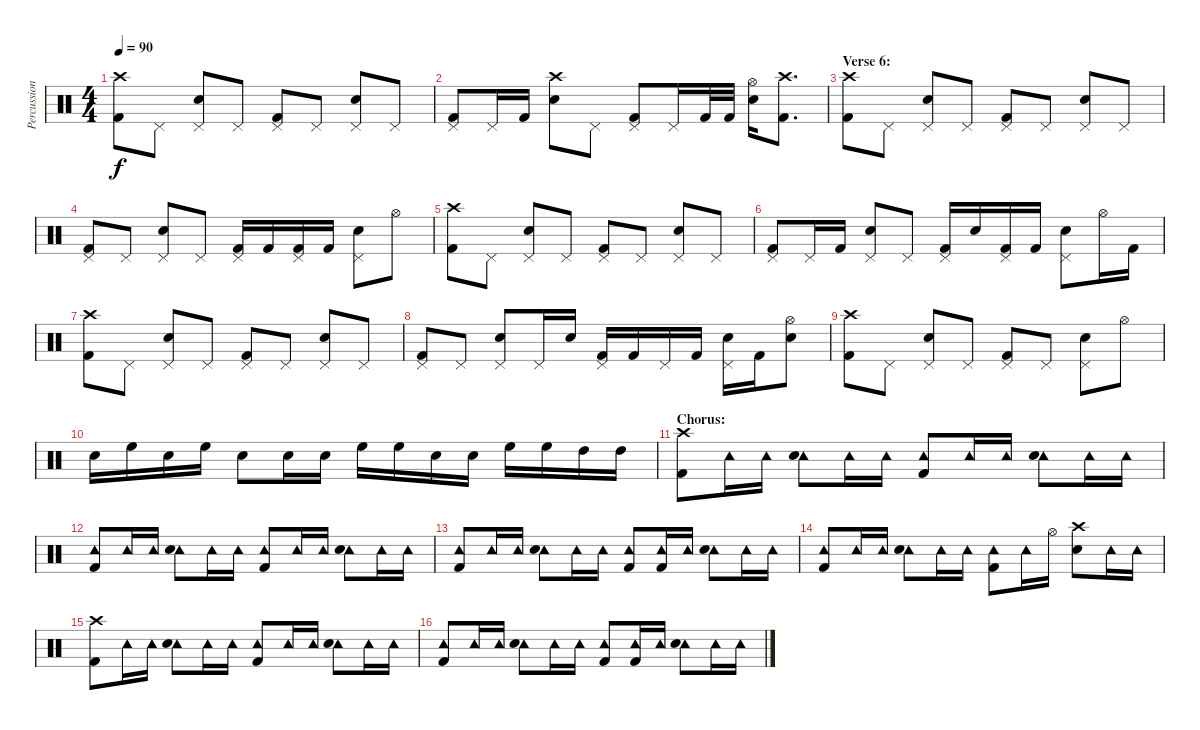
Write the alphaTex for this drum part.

\track ("Percussion" "Percussion") {instrument percussion}
\staff {score}
\articulation defaults
\ts (4 4)
\tempo 90
\clef neutral
\ks c
("Crash high (hit)" "Kick (hit) 2").8{dy f} "Pedal Hi-Hat (hit)".8 ("Pedal Hi-Hat (hit)" "Electric Snare (hit)").8 "Pedal Hi-Hat (hit)".8 ("Pedal Hi-Hat (hit)" "Kick (hit) 2").8 "Pedal Hi-Hat (hit)".8 ("Pedal Hi-Hat (hit)" "Electric Snare (hit)").8 "Pedal Hi-Hat (hit)".8 |
("Pedal Hi-Hat (hit)" "Kick (hit) 2").8 "Pedal Hi-Hat (hit)".16 "Kick (hit) 2".16 ("Crash high (hit)" "Electric Snare (hit)").8 "Pedal Hi-Hat (hit)".8 ("Pedal Hi-Hat (hit)" "Kick (hit) 2").8 "Pedal Hi-Hat (hit)".16 "Kick (hit) 2".32 "Kick (hit) 2".32 ("Hi-Hat (open)" "Electric Snare (hit)").16 ("Crash high (hit)" "Kick (hit) 2").8{d} |
\section ("" "Verse 6:")
("Crash high (hit)" "Kick (hit) 2").8 "Pedal Hi-Hat (hit)".8 ("Pedal Hi-Hat (hit)" "Electric Snare (hit)").8 "Pedal Hi-Hat (hit)".8 ("Pedal Hi-Hat (hit)" "Kick (hit) 2").8 "Pedal Hi-Hat (hit)".8 ("Pedal Hi-Hat (hit)" "Electric Snare (hit)").8 "Pedal Hi-Hat (hit)".8 |
("Pedal Hi-Hat (hit)" "Kick (hit) 2").8 "Pedal Hi-Hat (hit)".8 ("Pedal Hi-Hat (hit)" "Electric Snare (hit)").8 "Pedal Hi-Hat (hit)".8 ("Pedal Hi-Hat (hit)" "Kick (hit) 2").16 "Kick (hit) 2".16 ("Pedal Hi-Hat (hit)" "Kick (hit) 2").16 "Kick (hit) 2".16 ("Pedal Hi-Hat (hit)" "Electric Snare (hit)").8 "Hi-Hat (open)".8 |
("Crash high (hit)" "Kick (hit) 2").8 "Pedal Hi-Hat (hit)".8 ("Pedal Hi-Hat (hit)" "Electric Snare (hit)").8 "Pedal Hi-Hat (hit)".8 ("Pedal Hi-Hat (hit)" "Kick (hit) 2").8 "Pedal Hi-Hat (hit)".8 ("Pedal Hi-Hat (hit)" "Electric Snare (hit)").8 "Pedal Hi-Hat (hit)".8 |
("Pedal Hi-Hat (hit)" "Kick (hit) 2").8 "Pedal Hi-Hat (hit)".16 "Kick (hit) 2".16 ("Pedal Hi-Hat (hit)" "Electric Snare (hit)").8 "Pedal Hi-Hat (hit)".8 ("Pedal Hi-Hat (hit)" "Kick (hit) 2").16 "Electric Snare (hit)".16 ("Pedal Hi-Hat (hit)" "Kick (hit) 2").16 "Kick (hit) 2".16 ("Pedal Hi-Hat (hit)" "Electric Snare (hit)").8 "Hi-Hat (open)".16 "Kick (hit) 2".16 |
("Crash high (hit)" "Kick (hit) 2").8 "Pedal Hi-Hat (hit)".8 ("Pedal Hi-Hat (hit)" "Electric Snare (hit)").8 "Pedal Hi-Hat (hit)".8 ("Pedal Hi-Hat (hit)" "Kick (hit) 2").8 "Pedal Hi-Hat (hit)".8 ("Pedal Hi-Hat (hit)" "Electric Snare (hit)").8 "Pedal Hi-Hat (hit)".8 |
("Pedal Hi-Hat (hit)" "Kick (hit) 2").8 "Pedal Hi-Hat (hit)".8 ("Pedal Hi-Hat (hit)" "Electric Snare (hit)").8 "Pedal Hi-Hat (hit)".16 "Electric Snare (hit)".16 ("Pedal Hi-Hat (hit)" "Kick (hit) 2").16 "Kick (hit) 2".16 "Pedal Hi-Hat (hit)".16 "Kick (hit) 2".16 ("Pedal Hi-Hat (hit)" "Electric Snare (hit)").16 "Kick (hit) 2".16 ("Hi-Hat (open)" "Electric Snare (hit)").8 |
("Crash high (hit)" "Kick (hit) 2").8 "Pedal Hi-Hat (hit)".8 ("Pedal Hi-Hat (hit)" "Electric Snare (hit)").8 "Pedal Hi-Hat (hit)".8 ("Pedal Hi-Hat (hit)" "Kick (hit) 2").8 "Pedal Hi-Hat (hit)".8 ("Pedal Hi-Hat (hit)" "Electric Snare (hit)").8 "Hi-Hat (open)".8 |
"Electric Snare (hit)".16 "High Floor Tom (hit)".16 "Electric Snare (hit)".16 "High Floor Tom (hit)".16 "Electric Snare (hit)".8 "Electric Snare (hit)".16 "Electric Snare (hit)".16 "High Floor Tom (hit)".16 "High Floor Tom (hit)".16 "Electric Snare (hit)".16 "Electric Snare (hit)".16 "High Floor Tom (hit)".16 "High Floor Tom (hit)".16 "High Tom (hit)".16 "High Tom (hit)".16 |
\section ("" "Chorus:")
("Crash high (hit)" "Kick (hit) 2").8 "Tambourine (hit)".16 "Tambourine (hit)".16 ("Tambourine (hit)" "Electric Snare (hit)").8 "Tambourine (hit)".16 "Tambourine (hit)".16 ("Tambourine (hit)" "Kick (hit) 2").8 "Tambourine (hit)".16 "Tambourine (hit)".16 ("Tambourine (hit)" "Electric Snare (hit)").8 "Tambourine (hit)".16 "Tambourine (hit)".16 |
("Tambourine (hit)" "Kick (hit) 2").8 "Tambourine (hit)".16 "Tambourine (hit)".16 ("Tambourine (hit)" "Electric Snare (hit)").8 "Tambourine (hit)".16 "Tambourine (hit)".16 ("Tambourine (hit)" "Kick (hit) 2").8 "Tambourine (hit)".16 "Tambourine (hit)".16 ("Tambourine (hit)" "Electric Snare (hit)").8 "Tambourine (hit)".16 "Tambourine (hit)".16 |
("Tambourine (hit)" "Kick (hit) 2").8 "Tambourine (hit)".16 "Tambourine (hit)".16 ("Tambourine (hit)" "Electric Snare (hit)").8 "Tambourine (hit)".16 "Tambourine (hit)".16 ("Tambourine (hit)" "Kick (hit) 2").8 ("Tambourine (hit)" "Kick (hit) 2").16 "Tambourine (hit)".16 ("Tambourine (hit)" "Electric Snare (hit)").8 "Tambourine (hit)".16 "Tambourine (hit)".16 |
("Tambourine (hit)" "Kick (hit) 2").8 "Tambourine (hit)".16 "Tambourine (hit)".16 ("Tambourine (hit)" "Electric Snare (hit)").8 "Tambourine (hit)".16 "Tambourine (hit)".16 ("Tambourine (hit)" "Kick (hit) 2").8 "Tambourine (hit)".16 "Hi-Hat (open)".16 ("Crash high (hit)" "Electric Snare (hit)").8 "Tambourine (hit)".16 "Tambourine (hit)".16 |
("Crash high (hit)" "Kick (hit) 2").8 "Tambourine (hit)".16 "Tambourine (hit)".16 ("Tambourine (hit)" "Electric Snare (hit)").8 "Tambourine (hit)".16 "Tambourine (hit)".16 ("Tambourine (hit)" "Kick (hit) 2").8 "Tambourine (hit)".16 "Tambourine (hit)".16 ("Tambourine (hit)" "Electric Snare (hit)").8 "Tambourine (hit)".16 "Tambourine (hit)".16 |
("Tambourine (hit)" "Kick (hit) 2").8 "Tambourine (hit)".16 "Tambourine (hit)".16 ("Tambourine (hit)" "Electric Snare (hit)").8 "Tambourine (hit)".16 "Tambourine (hit)".16 ("Tambourine (hit)" "Kick (hit) 2").8 ("Tambourine (hit)" "Kick (hit) 2").16 "Tambourine (hit)".16 ("Tambourine (hit)" "Electric Snare (hit)").8 "Tambourine (hit)".16 "Tambourine (hit)".16
